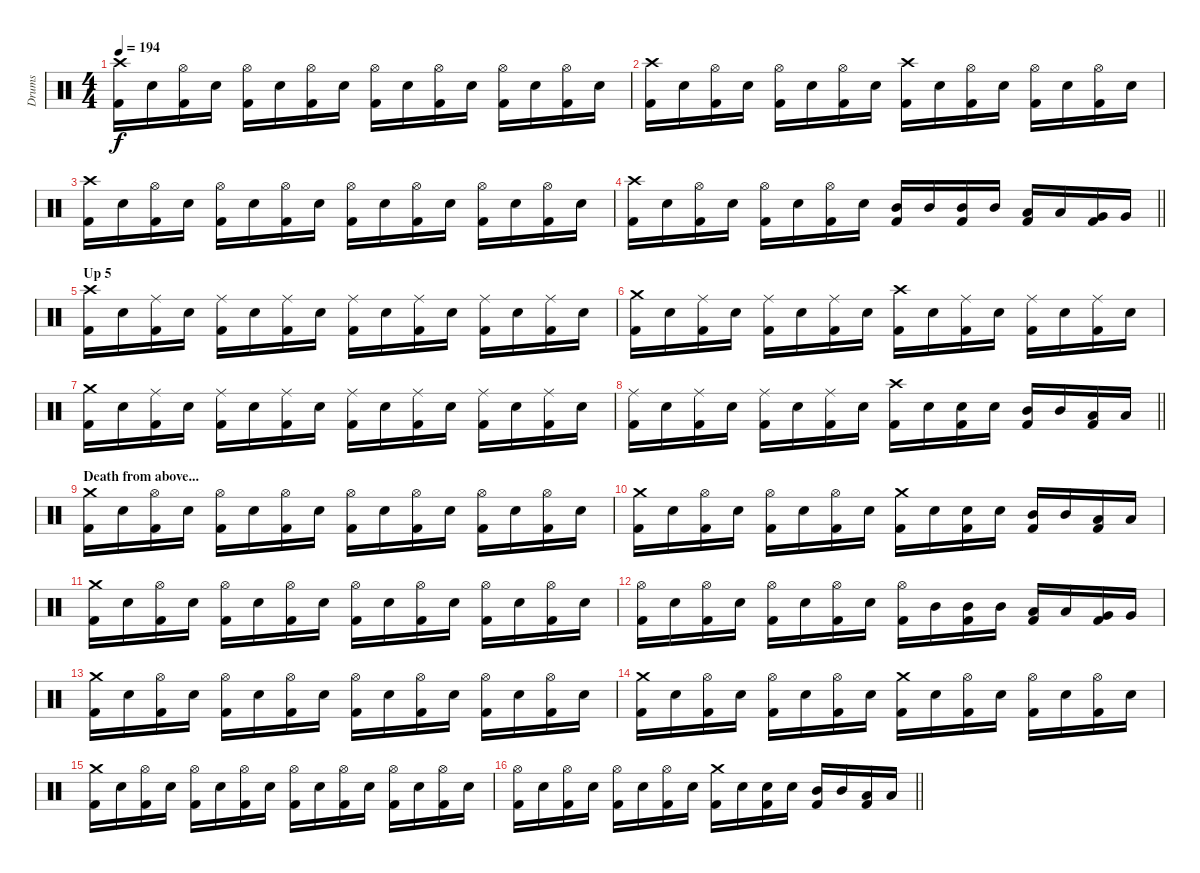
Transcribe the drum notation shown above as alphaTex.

\track ("Drums" "Drums") {instrument percussion}
\staff {score}
\articulation defaults
\ts (4 4)
\tempo 194
\clef neutral
\ks c
("Crash high (hit)" "Kick (hit) 2").16{dy f} "Electric Snare (hit)".16 ("Hi-Hat (open)" "Kick (hit) 2").16 "Electric Snare (hit)".16 ("Hi-Hat (open)" "Kick (hit) 2").16 "Electric Snare (hit)".16 ("Hi-Hat (open)" "Kick (hit) 2").16 "Electric Snare (hit)".16 ("Hi-Hat (open)" "Kick (hit) 2").16 "Electric Snare (hit)".16 ("Hi-Hat (open)" "Kick (hit) 2").16 "Electric Snare (hit)".16 ("Hi-Hat (open)" "Kick (hit) 2").16 "Electric Snare (hit)".16 ("Hi-Hat (open)" "Kick (hit) 2").16 "Electric Snare (hit)".16 |
("Crash high (hit)" "Kick (hit) 2").16 "Electric Snare (hit)".16 ("Hi-Hat (open)" "Kick (hit) 2").16 "Electric Snare (hit)".16 ("Hi-Hat (open)" "Kick (hit) 2").16 "Electric Snare (hit)".16 ("Hi-Hat (open)" "Kick (hit) 2").16 "Electric Snare (hit)".16 ("Crash high (hit)" "Kick (hit) 2").16 "Electric Snare (hit)".16 ("Hi-Hat (open)" "Kick (hit) 2").16 "Electric Snare (hit)".16 ("Hi-Hat (open)" "Kick (hit) 2").16 "Electric Snare (hit)".16 ("Hi-Hat (open)" "Kick (hit) 2").16 "Electric Snare (hit)".16 |
("Crash high (hit)" "Kick (hit) 2").16 "Electric Snare (hit)".16 ("Hi-Hat (open)" "Kick (hit) 2").16 "Electric Snare (hit)".16 ("Hi-Hat (open)" "Kick (hit) 2").16 "Electric Snare (hit)".16 ("Hi-Hat (open)" "Kick (hit) 2").16 "Electric Snare (hit)".16 ("Hi-Hat (open)" "Kick (hit) 2").16 "Electric Snare (hit)".16 ("Hi-Hat (open)" "Kick (hit) 2").16 "Electric Snare (hit)".16 ("Hi-Hat (open)" "Kick (hit) 2").16 "Electric Snare (hit)".16 ("Hi-Hat (open)" "Kick (hit) 2").16 "Electric Snare (hit)".16 |
\barLineRight lightlight
("Crash high (hit)" "Kick (hit) 2").16 "Electric Snare (hit)".16 ("Hi-Hat (open)" "Kick (hit) 2").16 "Electric Snare (hit)".16 ("Hi-Hat (open)" "Kick (hit) 2").16 "Electric Snare (hit)".16 ("Hi-Hat (open)" "Kick (hit) 2").16 "Electric Snare (hit)".16 ("Mid Tom (hit)" "Kick (hit) 2").16 "Mid Tom (hit)".16 ("Mid Tom (hit)" "Kick (hit) 2").16 "Mid Tom (hit)".16 ("Low Tom (hit)" "Kick (hit) 2").16 "Low Tom (hit)".16 ("Very Low Tom (hit)" "Kick (hit) 2").16 "Very Low Tom (hit)".16 |
\section ("" "Up 5")
("Crash high (hit)" "Kick (hit) 2").16 "Electric Snare (hit)".16 ("Ride (middle)" "Kick (hit) 2").16 "Electric Snare (hit)".16 ("Ride (middle)" "Kick (hit) 2").16 "Electric Snare (hit)".16 ("Ride (middle)" "Kick (hit) 2").16 "Electric Snare (hit)".16 ("Ride (middle)" "Kick (hit) 2").16 "Electric Snare (hit)".16 ("Ride (middle)" "Kick (hit) 2").16 "Electric Snare (hit)".16 ("Ride (middle)" "Kick (hit) 2").16 "Electric Snare (hit)".16 ("Ride (middle)" "Kick (hit) 2").16 "Electric Snare (hit)".16 |
("Crash medium (hit)" "Kick (hit) 2").16 "Electric Snare (hit)".16 ("Ride (middle)" "Kick (hit) 2").16 "Electric Snare (hit)".16 ("Ride (middle)" "Kick (hit) 2").16 "Electric Snare (hit)".16 ("Ride (middle)" "Kick (hit) 2").16 "Electric Snare (hit)".16 ("Crash high (hit)" "Kick (hit) 2").16 "Electric Snare (hit)".16 ("Ride (middle)" "Kick (hit) 2").16 "Electric Snare (hit)".16 ("Ride (middle)" "Kick (hit) 2").16 "Electric Snare (hit)".16 ("Ride (middle)" "Kick (hit) 2").16 "Electric Snare (hit)".16 |
("Crash medium (hit)" "Kick (hit) 2").16 "Electric Snare (hit)".16 ("Ride (middle)" "Kick (hit) 2").16 "Electric Snare (hit)".16 ("Ride (middle)" "Kick (hit) 2").16 "Electric Snare (hit)".16 ("Ride (middle)" "Kick (hit) 2").16 "Electric Snare (hit)".16 ("Ride (middle)" "Kick (hit) 2").16 "Electric Snare (hit)".16 ("Ride (middle)" "Kick (hit) 2").16 "Electric Snare (hit)".16 ("Ride (middle)" "Kick (hit) 2").16 "Electric Snare (hit)".16 ("Ride (middle)" "Kick (hit) 2").16 "Electric Snare (hit)".16 |
\barLineRight lightlight
("Ride (middle)" "Kick (hit) 2").16 "Electric Snare (hit)".16 ("Ride (middle)" "Kick (hit) 2").16 "Electric Snare (hit)".16 ("Ride (middle)" "Kick (hit) 2").16 "Electric Snare (hit)".16 ("Ride (middle)" "Kick (hit) 2").16 "Electric Snare (hit)".16 ("Crash high (hit)" "Kick (hit) 2").16 "Electric Snare (hit)".16 ("Electric Snare (hit)" "Kick (hit) 2").16 "Electric Snare (hit)".16 ("Mid Tom (hit)" "Kick (hit) 2").16 "Mid Tom (hit)".16 ("Low Tom (hit)" "Kick (hit) 2").16 "Low Tom (hit)".16 |
\section ("" "Death from above...")
("Crash medium (hit)" "Kick (hit) 2").16 "Electric Snare (hit)".16 ("Hi-Hat (open)" "Kick (hit) 2").16 "Electric Snare (hit)".16 ("Hi-Hat (open)" "Kick (hit) 2").16 "Electric Snare (hit)".16 ("Hi-Hat (open)" "Kick (hit) 2").16 "Electric Snare (hit)".16 ("Hi-Hat (open)" "Kick (hit) 2").16 "Electric Snare (hit)".16 ("Hi-Hat (open)" "Kick (hit) 2").16 "Electric Snare (hit)".16 ("Hi-Hat (open)" "Kick (hit) 2").16 "Electric Snare (hit)".16 ("Hi-Hat (open)" "Kick (hit) 2").16 "Electric Snare (hit)".16 |
("Crash medium (hit)" "Kick (hit) 2").16 "Electric Snare (hit)".16 ("Hi-Hat (open)" "Kick (hit) 2").16 "Electric Snare (hit)".16 ("Hi-Hat (open)" "Kick (hit) 2").16 "Electric Snare (hit)".16 ("Hi-Hat (open)" "Kick (hit) 2").16 "Electric Snare (hit)".16 ("Crash medium (hit)" "Kick (hit) 2").16 "Electric Snare (hit)".16 ("Electric Snare (hit)" "Kick (hit) 2").16 "Electric Snare (hit)".16 ("Mid Tom (hit)" "Kick (hit) 2").16 "Mid Tom (hit)".16 ("Low Tom (hit)" "Kick (hit) 2").16 "Low Tom (hit)".16 |
("Crash medium (hit)" "Kick (hit) 2").16 "Electric Snare (hit)".16 ("Hi-Hat (open)" "Kick (hit) 2").16 "Electric Snare (hit)".16 ("Hi-Hat (open)" "Kick (hit) 2").16 "Electric Snare (hit)".16 ("Hi-Hat (open)" "Kick (hit) 2").16 "Electric Snare (hit)".16 ("Hi-Hat (open)" "Kick (hit) 2").16 "Electric Snare (hit)".16 ("Hi-Hat (open)" "Kick (hit) 2").16 "Electric Snare (hit)".16 ("Hi-Hat (open)" "Kick (hit) 2").16 "Electric Snare (hit)".16 ("Hi-Hat (open)" "Kick (hit) 2").16 "Electric Snare (hit)".16 |
("Hi-Hat (open)" "Kick (hit) 2").16 "Electric Snare (hit)".16 ("Hi-Hat (open)" "Kick (hit) 2").16 "Electric Snare (hit)".16 ("Hi-Hat (open)" "Kick (hit) 2").16 "Electric Snare (hit)".16 ("Hi-Hat (open)" "Kick (hit) 2").16 "Electric Snare (hit)".16 ("Hi-Hat (open)" "Kick (hit) 2").16 "Mid Tom (hit)".16 ("Mid Tom (hit)" "Kick (hit) 2").16 "Mid Tom (hit)".16 ("Low Tom (hit)" "Kick (hit) 2").16 "Low Tom (hit)".16 ("Very Low Tom (hit)" "Kick (hit) 2").16 "Very Low Tom (hit)".16 |
("Crash medium (hit)" "Kick (hit) 2").16 "Electric Snare (hit)".16 ("Hi-Hat (open)" "Kick (hit) 2").16 "Electric Snare (hit)".16 ("Hi-Hat (open)" "Kick (hit) 2").16 "Electric Snare (hit)".16 ("Hi-Hat (open)" "Kick (hit) 2").16 "Electric Snare (hit)".16 ("Hi-Hat (open)" "Kick (hit) 2").16 "Electric Snare (hit)".16 ("Hi-Hat (open)" "Kick (hit) 2").16 "Electric Snare (hit)".16 ("Hi-Hat (open)" "Kick (hit) 2").16 "Electric Snare (hit)".16 ("Hi-Hat (open)" "Kick (hit) 2").16 "Electric Snare (hit)".16 |
("Crash medium (hit)" "Kick (hit) 2").16 "Electric Snare (hit)".16 ("Hi-Hat (open)" "Kick (hit) 2").16 "Electric Snare (hit)".16 ("Hi-Hat (open)" "Kick (hit) 2").16 "Electric Snare (hit)".16 ("Hi-Hat (open)" "Kick (hit) 2").16 "Electric Snare (hit)".16 ("Crash medium (hit)" "Kick (hit) 2").16 "Electric Snare (hit)".16 ("Hi-Hat (open)" "Kick (hit) 2").16 "Electric Snare (hit)".16 ("Hi-Hat (open)" "Kick (hit) 2").16 "Electric Snare (hit)".16 ("Hi-Hat (open)" "Kick (hit) 2").16 "Electric Snare (hit)".16 |
("Crash medium (hit)" "Kick (hit) 2").16 "Electric Snare (hit)".16 ("Hi-Hat (open)" "Kick (hit) 2").16 "Electric Snare (hit)".16 ("Hi-Hat (open)" "Kick (hit) 2").16 "Electric Snare (hit)".16 ("Hi-Hat (open)" "Kick (hit) 2").16 "Electric Snare (hit)".16 ("Hi-Hat (open)" "Kick (hit) 2").16 "Electric Snare (hit)".16 ("Hi-Hat (open)" "Kick (hit) 2").16 "Electric Snare (hit)".16 ("Hi-Hat (open)" "Kick (hit) 2").16 "Electric Snare (hit)".16 ("Hi-Hat (open)" "Kick (hit) 2").16 "Electric Snare (hit)".16 |
\barLineRight lightlight
("Hi-Hat (open)" "Kick (hit) 2").16 "Electric Snare (hit)".16 ("Hi-Hat (open)" "Kick (hit) 2").16 "Electric Snare (hit)".16 ("Hi-Hat (open)" "Kick (hit) 2").16 "Electric Snare (hit)".16 ("Hi-Hat (open)" "Kick (hit) 2").16 "Electric Snare (hit)".16 ("Crash medium (hit)" "Kick (hit) 2").16 "Electric Snare (hit)".16 ("Electric Snare (hit)" "Kick (hit) 2").16 "Electric Snare (hit)".16 ("Mid Tom (hit)" "Kick (hit) 2").16 "Mid Tom (hit)".16 ("Low Tom (hit)" "Kick (hit) 2").16 "Low Tom (hit)".16
